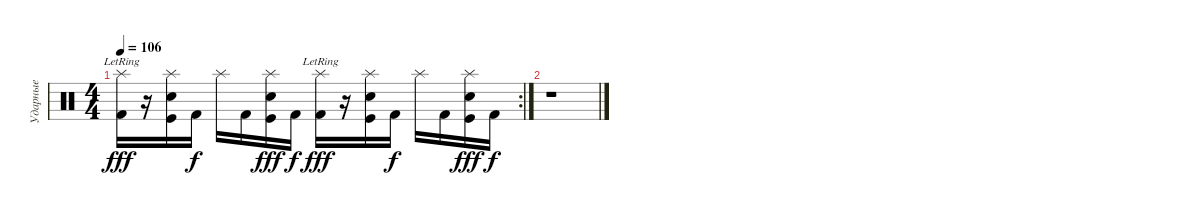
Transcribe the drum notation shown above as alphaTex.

\track ("Ударные" "Ударные") {instrument percussion}
\staff {score}
\articulation defaults
\rc 2
\ts (4 4)
\tempo 106
\clef neutral
\ks c
("Splash (hit)"{lr} "Kick (hit) 2").16{dy fff} r.16 ("Splash (hit)"{pm} "Electric Snare (hit)" "Kick (hit)").16 "Kick (hit) 2".16{dy f} "Splash (hit)"{pm}.16 "Kick (hit) 2".16 ("Splash (hit)"{pm} "Electric Snare (hit)" "Kick (hit)").16{dy fff} "Kick (hit) 2".16{dy f} ("Splash (hit)"{lr} "Kick (hit) 2").16{dy fff} r.16 ("Splash (hit)"{pm} "Electric Snare (hit)" "Kick (hit)").16 "Kick (hit) 2".16{dy f} "Splash (hit)"{pm}.16 "Kick (hit) 2".16 ("Splash (hit)"{pm} "Electric Snare (hit)" "Kick (hit)").16{dy fff} "Kick (hit) 2".16{dy f} |
r.1
